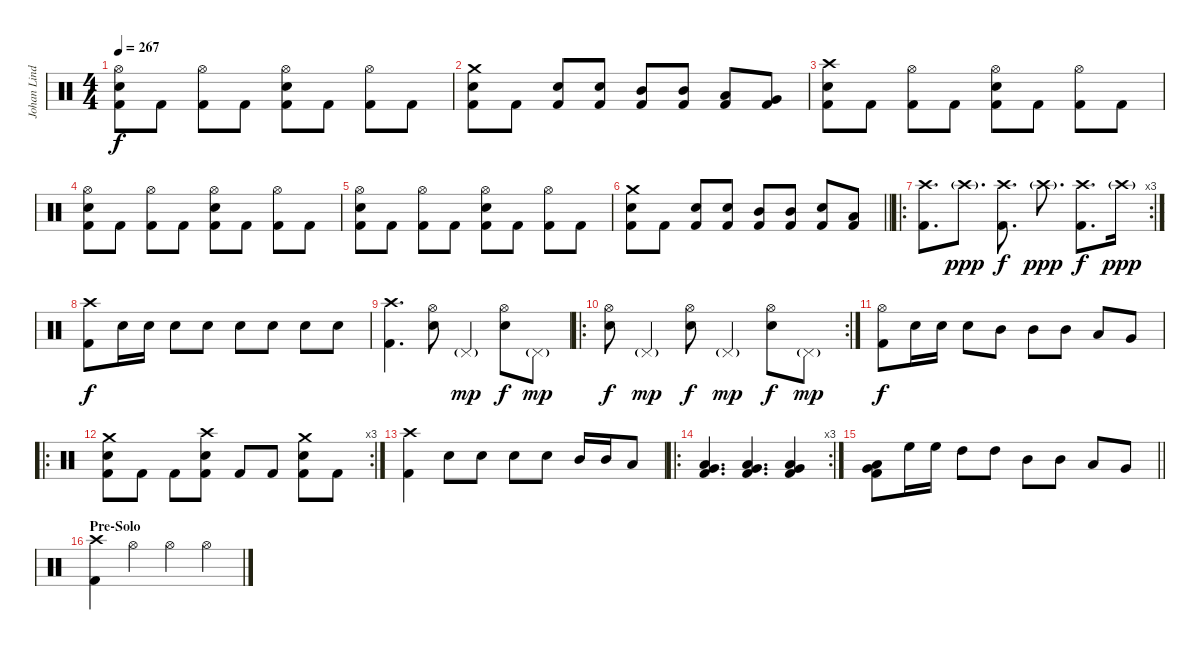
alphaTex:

\track ("Johan Lindstrand" "Johan Lind") {instrument percussion}
\staff {score}
\articulation defaults
\ts (4 4)
\tempo 267
\clef neutral
\ks c
("Hi-Hat (open)" "Electric Snare (hit)" "Kick (hit) 2").8{dy f} "Kick (hit) 2".8 ("Hi-Hat (open)" "Kick (hit) 2").8 "Kick (hit) 2".8 ("Hi-Hat (open)" "Electric Snare (hit)" "Kick (hit) 2").8 "Kick (hit) 2".8 ("Hi-Hat (open)" "Kick (hit) 2").8 "Kick (hit) 2".8 |
("Crash medium (hit)" "Electric Snare (hit)" "Kick (hit) 2").8 "Kick (hit) 2".8 ("Electric Snare (hit)" "Kick (hit) 2").8 ("Electric Snare (hit)" "Kick (hit) 2").8 ("Mid Tom (hit)" "Kick (hit) 2").8 ("Mid Tom (hit)" "Kick (hit) 2").8 ("Low Tom (hit)" "Kick (hit) 2").8 ("Very Low Tom (hit)" "Kick (hit) 2").8 |
("Crash high (hit)" "Electric Snare (hit)" "Kick (hit) 2").8 "Kick (hit) 2".8 ("Hi-Hat (open)" "Kick (hit) 2").8 "Kick (hit) 2".8 ("Hi-Hat (open)" "Electric Snare (hit)" "Kick (hit) 2").8 "Kick (hit) 2".8 ("Hi-Hat (open)" "Kick (hit) 2").8 "Kick (hit) 2".8 |
("Hi-Hat (open)" "Electric Snare (hit)" "Kick (hit) 2").8 "Kick (hit) 2".8 ("Hi-Hat (open)" "Kick (hit) 2").8 "Kick (hit) 2".8 ("Hi-Hat (open)" "Electric Snare (hit)" "Kick (hit) 2").8 "Kick (hit) 2".8 ("Hi-Hat (open)" "Kick (hit) 2").8 "Kick (hit) 2".8 |
("Hi-Hat (open)" "Electric Snare (hit)" "Kick (hit) 2").8 "Kick (hit) 2".8 ("Hi-Hat (open)" "Kick (hit) 2").8 "Kick (hit) 2".8 ("Hi-Hat (open)" "Electric Snare (hit)" "Kick (hit) 2").8 "Kick (hit) 2".8 ("Hi-Hat (open)" "Kick (hit) 2").8 "Kick (hit) 2".8 |
\barLineRight lightlight
("Crash medium (hit)" "Electric Snare (hit)" "Kick (hit) 2").8 "Kick (hit) 2".8 ("Electric Snare (hit)" "Kick (hit) 2").8 ("Electric Snare (hit)" "Kick (hit) 2").8 ("Mid Tom (hit)" "Kick (hit) 2").8 ("Mid Tom (hit)" "Kick (hit) 2").8 ("Electric Snare (hit)" "Kick (hit) 2").8 ("Low Tom (hit)" "Kick (hit) 2").8 |
\ro
\rc 3
\section ("" "")
("Crash high (hit)" "Kick (hit) 2").8{d} "Crash high (hit)"{g}.8{d dy ppp} ("Crash high (hit)" "Kick (hit) 2").8{d dy f} "Crash high (hit)"{g}.8{d dy ppp} ("Crash high (hit)" "Kick (hit) 2").8{d dy f} "Crash high (hit)"{g}.16{dy ppp} |
("Crash high (hit)" "Kick (hit) 2").8{dy f} "Electric Snare (hit)".16 "Electric Snare (hit)".16 "Electric Snare (hit)".8 "Electric Snare (hit)".8 "Electric Snare (hit)".8 "Electric Snare (hit)".8 "Electric Snare (hit)".8 "Electric Snare (hit)".8 |
("Crash high (hit)" "Kick (hit) 2").4{d} ("Hi-Hat (open)" "Electric Snare (hit)").8 "Pedal Hi-Hat (hit)"{g}.4{dy mp} ("Hi-Hat (open)" "Electric Snare (hit)").8{dy f} "Pedal Hi-Hat (hit)"{g}.8{dy mp} |
\ro
\rc 2
("Hi-Hat (open)" "Electric Snare (hit)").8{dy f} "Pedal Hi-Hat (hit)"{g}.4{dy mp} ("Hi-Hat (open)" "Electric Snare (hit)").8{dy f} "Pedal Hi-Hat (hit)"{g}.4{dy mp} ("Hi-Hat (open)" "Electric Snare (hit)").8{dy f} "Pedal Hi-Hat (hit)"{g}.8{dy mp} |
("Hi-Hat (open)" "Kick (hit) 2").8{dy f} "Electric Snare (hit)".16 "Electric Snare (hit)".16 "Electric Snare (hit)".8 "Mid Tom (hit)".8 "Mid Tom (hit)".8 "Mid Tom (hit)".8 "Low Tom (hit)".8 "Very Low Tom (hit)".8 |
\ro
\rc 3
("Crash medium (hit)" "Electric Snare (hit)" "Kick (hit) 2").8 "Kick (hit) 2".8 "Kick (hit) 2".8 ("Crash high (hit)" "Electric Snare (hit)" "Kick (hit) 2").8 "Kick (hit) 2".8 "Kick (hit) 2".8 ("Crash medium (hit)" "Electric Snare (hit)" "Kick (hit) 2").8 "Kick (hit) 2".8 |
("Crash high (hit)" "Kick (hit) 2").4 "Electric Snare (hit)".8 "Electric Snare (hit)".8 "Electric Snare (hit)".8 "Electric Snare (hit)".8 "Mid Tom (hit)".16 "Mid Tom (hit)".16 "Low Tom (hit)".8 |
\ro
\rc 3
("Very Low Tom (hit)" "Low Floor Tom (hit)" "Kick (hit) 2").4{d} ("Very Low Tom (hit)" "Low Floor Tom (hit)" "Kick (hit) 2").4{d} ("Very Low Tom (hit)" "Low Floor Tom (hit)" "Kick (hit) 2").4 |
\barLineRight lightlight
("Very Low Tom (hit)" "Low Floor Tom (hit)" "Kick (hit) 2").8 "High Floor Tom (hit)".16 "High Floor Tom (hit)".16 "High Tom (hit)".8 "High Tom (hit)".8 "Mid Tom (hit)".8 "Mid Tom (hit)".8 "Low Tom (hit)".8 "Very Low Tom (hit)".8 |
\section ("" "Pre-Solo")
("Crash high (hit)" "Kick (hit) 2").4 "Hi-Hat (open)".4 "Hi-Hat (open)".4 "Hi-Hat (open)".4
